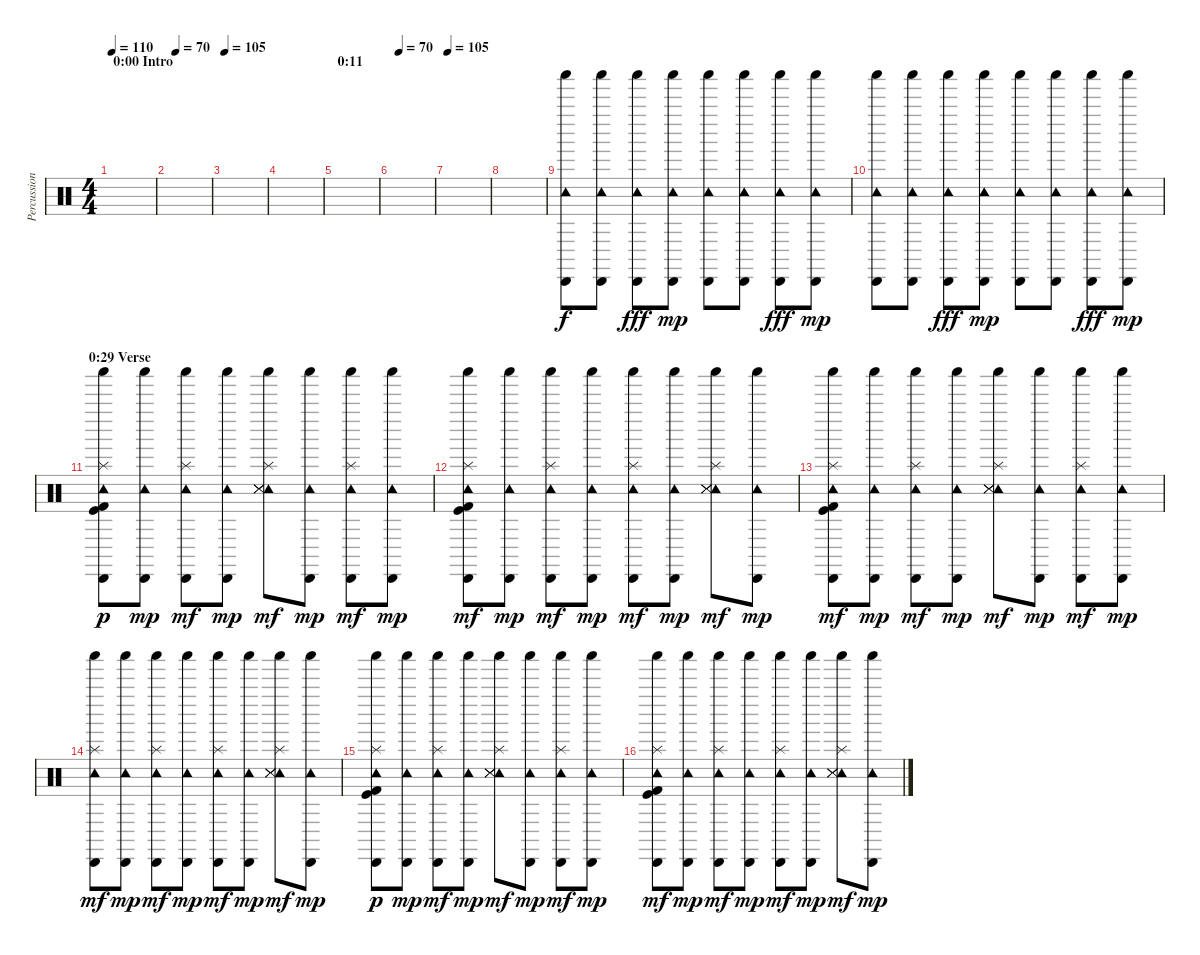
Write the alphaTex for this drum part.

\track ("Percussion (Ian Paice)" "Percussion") {instrument percussion}
\staff {score}
\articulation defaults
\ts (4 4)
\section ("" "0:00 Intro")
\tempo 110
\clef neutral
\ks c
|
\tempo (70 0.16666666666666666)
|
\tempo 105
|
|
\section ("" "0:11")
|
\tempo (70 0.16666666666666666)
|
\tempo 105
|
|
("Shaker (hit)" "Tambourine (hit)" "Cabasa (hit)").8{volume 11} ("Shaker (hit)" "Tambourine (hit)" "Cabasa (hit)").8 ("Shaker (hit)" "Tambourine (hit)" "Cabasa (hit)").8{dy fff} ("Shaker (hit)" "Tambourine (hit)" "Cabasa (hit)").8{dy mp} ("Shaker (hit)" "Tambourine (hit)" "Cabasa (hit)").8 ("Shaker (hit)" "Tambourine (hit)" "Cabasa (hit)").8 ("Shaker (hit)" "Tambourine (hit)" "Cabasa (hit)").8{dy fff} ("Shaker (hit)" "Tambourine (hit)" "Cabasa (hit)").8{dy mp} |
("Shaker (hit)" "Tambourine (hit)" "Cabasa (hit)").8 ("Shaker (hit)" "Tambourine (hit)" "Cabasa (hit)").8 ("Shaker (hit)" "Tambourine (hit)" "Cabasa (hit)").8{dy fff} ("Shaker (hit)" "Tambourine (hit)" "Cabasa (hit)").8{dy mp} ("Shaker (hit)" "Tambourine (hit)" "Cabasa (hit)").8 ("Shaker (hit)" "Tambourine (hit)" "Cabasa (hit)").8 ("Shaker (hit)" "Tambourine (hit)" "Cabasa (hit)").8{dy fff} ("Shaker (hit)" "Tambourine (hit)" "Cabasa (hit)").8{dy mp} |
\section ("" "0:29 Verse")
("Shaker (hit)" "Tambourine (hit)" "Cabasa (hit)" "Kick (hit)" "Kick (hit) 2" "Splash (hit)").8{dy p} ("Shaker (hit)" "Tambourine (hit)" "Cabasa (hit)").8{dy mp} ("Shaker (hit)" "Tambourine (hit)" "Cabasa (hit)" "Splash (hit)").8{dy mf} ("Shaker (hit)" "Tambourine (hit)" "Cabasa (hit)").8{dy mp} ("Shaker (hit)" "Tambourine (hit)" "Snare (side stick) 3" "Snare (side stick) 3" "Snare (side stick) 3" "Splash (hit)").8{dy mf} ("Shaker (hit)" "Tambourine (hit)" "Cabasa (hit)").8{dy mp} ("Shaker (hit)" "Tambourine (hit)" "Cabasa (hit)" "Splash (hit)").8{dy mf} ("Shaker (hit)" "Tambourine (hit)" "Cabasa (hit)").8{dy mp} |
("Shaker (hit)" "Tambourine (hit)" "Cabasa (hit)" "Kick (hit)" "Kick (hit) 2" "Splash (hit)").8{dy mf} ("Shaker (hit)" "Tambourine (hit)" "Cabasa (hit)").8{dy mp} ("Shaker (hit)" "Tambourine (hit)" "Cabasa (hit)" "Splash (hit)").8{dy mf} ("Shaker (hit)" "Tambourine (hit)" "Cabasa (hit)").8{dy mp} ("Shaker (hit)" "Tambourine (hit)" "Cabasa (hit)" "Splash (hit)").8{dy mf} ("Shaker (hit)" "Tambourine (hit)" "Cabasa (hit)").8{dy mp} ("Shaker (hit)" "Tambourine (hit)" "Snare (side stick) 3" "Snare (side stick) 3" "Snare (side stick) 3" "Splash (hit)").8{dy mf} ("Shaker (hit)" "Tambourine (hit)" "Cabasa (hit)").8{dy mp} |
("Shaker (hit)" "Tambourine (hit)" "Cabasa (hit)" "Kick (hit)" "Kick (hit) 2" "Splash (hit)").8{dy mf} ("Shaker (hit)" "Tambourine (hit)" "Cabasa (hit)").8{dy mp} ("Shaker (hit)" "Tambourine (hit)" "Cabasa (hit)" "Splash (hit)").8{dy mf} ("Shaker (hit)" "Tambourine (hit)" "Cabasa (hit)").8{dy mp} ("Shaker (hit)" "Tambourine (hit)" "Snare (side stick) 3" "Snare (side stick) 3" "Snare (side stick) 3" "Splash (hit)").8{dy mf} ("Shaker (hit)" "Tambourine (hit)" "Cabasa (hit)").8{dy mp} ("Shaker (hit)" "Tambourine (hit)" "Cabasa (hit)" "Splash (hit)").8{dy mf} ("Shaker (hit)" "Tambourine (hit)" "Cabasa (hit)").8{dy mp} |
("Shaker (hit)" "Tambourine (hit)" "Cabasa (hit)" "Splash (hit)").8{dy mf} ("Shaker (hit)" "Tambourine (hit)" "Cabasa (hit)").8{dy mp} ("Shaker (hit)" "Tambourine (hit)" "Cabasa (hit)" "Splash (hit)").8{dy mf} ("Shaker (hit)" "Tambourine (hit)" "Cabasa (hit)").8{dy mp} ("Shaker (hit)" "Tambourine (hit)" "Cabasa (hit)" "Splash (hit)").8{dy mf} ("Shaker (hit)" "Tambourine (hit)" "Cabasa (hit)").8{dy mp} ("Shaker (hit)" "Tambourine (hit)" "Snare (side stick) 3" "Snare (side stick) 3" "Snare (side stick) 3" "Splash (hit)").8{dy mf} ("Shaker (hit)" "Tambourine (hit)" "Cabasa (hit)").8{dy mp} |
("Shaker (hit)" "Tambourine (hit)" "Cabasa (hit)" "Kick (hit)" "Kick (hit) 2" "Splash (hit)").8{dy p} ("Shaker (hit)" "Tambourine (hit)" "Cabasa (hit)").8{dy mp} ("Shaker (hit)" "Tambourine (hit)" "Cabasa (hit)" "Splash (hit)").8{dy mf} ("Shaker (hit)" "Tambourine (hit)" "Cabasa (hit)").8{dy mp} ("Shaker (hit)" "Tambourine (hit)" "Snare (side stick) 3" "Snare (side stick) 3" "Snare (side stick) 3" "Splash (hit)").8{dy mf} ("Shaker (hit)" "Tambourine (hit)" "Cabasa (hit)").8{dy mp} ("Shaker (hit)" "Tambourine (hit)" "Cabasa (hit)" "Splash (hit)").8{dy mf} ("Shaker (hit)" "Tambourine (hit)" "Cabasa (hit)").8{dy mp} |
("Shaker (hit)" "Tambourine (hit)" "Cabasa (hit)" "Kick (hit)" "Kick (hit) 2" "Splash (hit)").8{dy mf} ("Shaker (hit)" "Tambourine (hit)" "Cabasa (hit)").8{dy mp} ("Shaker (hit)" "Tambourine (hit)" "Cabasa (hit)" "Splash (hit)").8{dy mf} ("Shaker (hit)" "Tambourine (hit)" "Cabasa (hit)").8{dy mp} ("Shaker (hit)" "Tambourine (hit)" "Cabasa (hit)" "Splash (hit)").8{dy mf} ("Shaker (hit)" "Tambourine (hit)" "Cabasa (hit)").8{dy mp} ("Shaker (hit)" "Tambourine (hit)" "Snare (side stick) 3" "Snare (side stick) 3" "Snare (side stick) 3" "Splash (hit)").8{dy mf} ("Shaker (hit)" "Tambourine (hit)" "Cabasa (hit)").8{dy mp}
